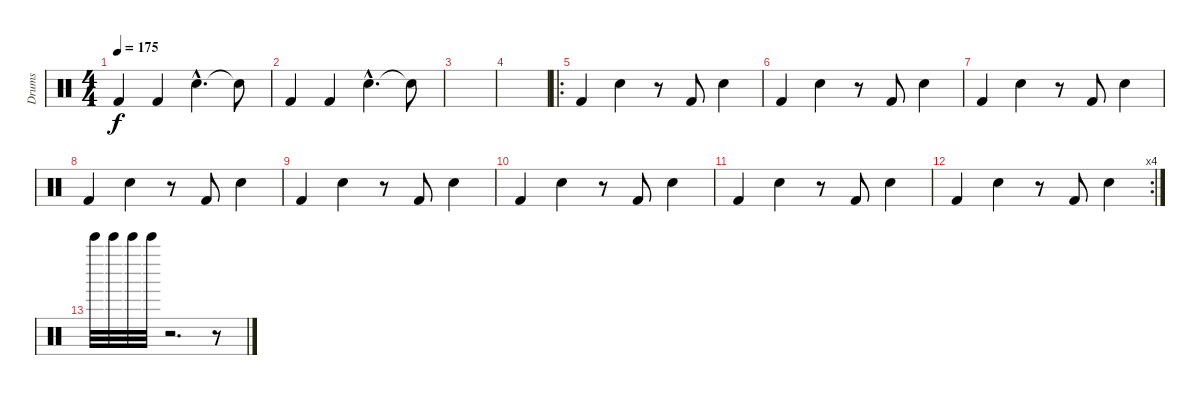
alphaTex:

\track ("Drums" "Drums") {instrument percussion}
\staff {score}
\articulation defaults
\ts (4 4)
\tempo 175
\clef neutral
\ks c "Kick (hit) 2".4{dy f} "Kick (hit) 2".4 "Electric Snare (hit)"{hac}.4{d} "Snare (hit)"{t}.8
|
"Kick (hit) 2".4 "Kick (hit) 2".4 "Electric Snare (hit)"{hac}.4{d} "Snare (hit)"{t}.8 |
|
|
\ro "Kick (hit) 2".4 "Electric Snare (hit)".4
r.8 "Kick (hit) 2".8 "Electric Snare (hit)".4 |
"Kick (hit) 2".4 "Electric Snare (hit)".4 r.8 "Kick (hit) 2".8 "Electric Snare (hit)".4 |
"Kick (hit) 2".4 "Electric Snare (hit)".4 r.8 "Kick (hit) 2".8 "Electric Snare (hit)".4 |
"Kick (hit) 2".4 "Electric Snare (hit)".4 r.8 "Kick (hit) 2".8 "Electric Snare (hit)".4 |
"Kick (hit) 2".4 "Electric Snare (hit)".4 r.8 "Kick (hit) 2".8 "Electric Snare (hit)".4 |
"Kick (hit) 2".4 "Electric Snare (hit)".4 r.8 "Kick (hit) 2".8 "Electric Snare (hit)".4 |
"Kick (hit) 2".4 "Electric Snare (hit)".4 r.8 "Kick (hit) 2".8 "Electric Snare (hit)".4 |
\rc 4 "Kick (hit) 2".4 "Electric Snare (hit)".4
r.8 "Kick (hit) 2".8 "Electric Snare (hit)".4 |
"Bell Tree (hit)".32 "Bell Tree (hit)".32 "Bell Tree (hit)".32 "Bell Tree (hit)".32 r.2{d} r.8
